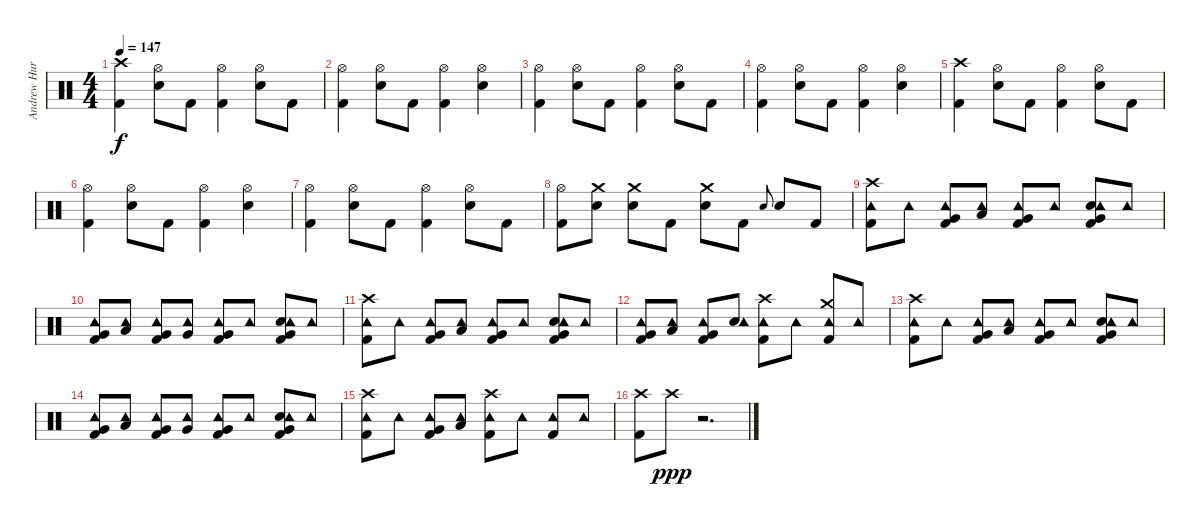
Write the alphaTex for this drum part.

\track ("Andrew Hurley (Drums)" "Andrew Hur") {instrument percussion}
\staff {score}
\articulation defaults
\ts (4 4)
\tempo 147
\clef neutral
\ks c
("Crash high (hit)" "Kick (hit) 2").4{dy f} ("Hi-Hat (open)" "Snare (hit) 2").8 "Kick (hit) 2".8 ("Hi-Hat (open)" "Kick (hit) 2").4 ("Hi-Hat (open)" "Snare (hit) 2").8 "Kick (hit) 2".8 |
("Hi-Hat (open)" "Kick (hit) 2").4 ("Hi-Hat (open)" "Snare (hit) 2").8 "Kick (hit) 2".8 ("Hi-Hat (open)" "Kick (hit) 2").4 ("Hi-Hat (open)" "Snare (hit) 2").4 |
("Hi-Hat (open)" "Kick (hit) 2").4 ("Hi-Hat (open)" "Snare (hit) 2").8 "Kick (hit) 2".8 ("Hi-Hat (open)" "Kick (hit) 2").4 ("Hi-Hat (open)" "Snare (hit) 2").8 "Kick (hit) 2".8 |
("Hi-Hat (open)" "Kick (hit) 2").4 ("Hi-Hat (open)" "Snare (hit) 2").8 "Kick (hit) 2".8 ("Hi-Hat (open)" "Kick (hit) 2").4 ("Hi-Hat (open)" "Snare (hit) 2").4 |
("Crash high (hit)" "Kick (hit) 2").4 ("Hi-Hat (open)" "Snare (hit) 2").8 "Kick (hit) 2".8 ("Hi-Hat (open)" "Kick (hit) 2").4 ("Hi-Hat (open)" "Snare (hit) 2").8 "Kick (hit) 2".8 |
("Hi-Hat (open)" "Kick (hit) 2").4 ("Hi-Hat (open)" "Snare (hit) 2").8 "Kick (hit) 2".8 ("Hi-Hat (open)" "Kick (hit) 2").4 ("Hi-Hat (open)" "Snare (hit) 2").4 |
("Hi-Hat (open)" "Kick (hit) 2").4 ("Hi-Hat (open)" "Snare (hit) 2").8 "Kick (hit) 2".8 ("Hi-Hat (open)" "Kick (hit) 2").4 ("Hi-Hat (open)" "Snare (hit) 2").8 "Kick (hit) 2".8 |
("Hi-Hat (open)" "Kick (hit) 2").8 ("Crash medium (hit)" "Snare (hit) 2").8 ("Crash medium (hit)" "Snare (hit) 2").8 "Kick (hit) 2".8 ("Crash medium (hit)" "Snare (hit) 2").8 "Kick (hit) 2".8 "Snare (hit) 2".8{gr onbeat} "Snare (hit) 2".8 "Kick (hit) 2".8 |
("Crash high (hit)" "Kick (hit) 2" "Tambourine (hit)").8 "Tambourine (hit)".8 ("Very Low Tom (hit)" "Kick (hit) 2" "Tambourine (hit)").8 ("Low Tom (hit)" "Tambourine (hit)").8 ("Very Low Tom (hit)" "Kick (hit) 2" "Tambourine (hit)").8 "Tambourine (hit)".8 ("Very Low Tom (hit)" "Snare (hit) 2" "Kick (hit) 2" "Tambourine (hit)").8 "Tambourine (hit)".8 |
("Very Low Tom (hit)" "Kick (hit) 2" "Tambourine (hit)").8 ("Low Tom (hit)" "Tambourine (hit)").8 ("Very Low Tom (hit)" "Kick (hit) 2" "Tambourine (hit)").8 ("Very Low Tom (hit)" "Tambourine (hit)").8 ("Very Low Tom (hit)" "Kick (hit) 2" "Tambourine (hit)").8 "Tambourine (hit)".8 ("Very Low Tom (hit)" "Snare (hit) 2" "Kick (hit) 2" "Tambourine (hit)").8 "Tambourine (hit)".8 |
("Crash high (hit)" "Kick (hit) 2" "Tambourine (hit)").8 "Tambourine (hit)".8 ("Very Low Tom (hit)" "Kick (hit) 2" "Tambourine (hit)").8 ("Low Tom (hit)" "Tambourine (hit)").8 ("Very Low Tom (hit)" "Kick (hit) 2" "Tambourine (hit)").8 "Tambourine (hit)".8 ("Very Low Tom (hit)" "Snare (hit) 2" "Kick (hit) 2" "Tambourine (hit)").8 "Tambourine (hit)".8 |
("Very Low Tom (hit)" "Kick (hit) 2" "Tambourine (hit)").8 ("Low Tom (hit)" "Tambourine (hit)").8 ("Very Low Tom (hit)" "Kick (hit) 2" "Tambourine (hit)").8 ("Snare (hit) 2" "Tambourine (hit)").8 ("Crash high (hit)" "Kick (hit) 2" "Tambourine (hit)").8 "Tambourine (hit)".8 ("Crash medium (hit)" "Kick (hit) 2" "Tambourine (hit)").8 "Tambourine (hit)".8 |
("Crash high (hit)" "Kick (hit) 2" "Tambourine (hit)").8 "Tambourine (hit)".8 ("Very Low Tom (hit)" "Kick (hit) 2" "Tambourine (hit)").8 ("Low Tom (hit)" "Tambourine (hit)").8 ("Very Low Tom (hit)" "Kick (hit) 2" "Tambourine (hit)").8 "Tambourine (hit)".8 ("Very Low Tom (hit)" "Snare (hit) 2" "Kick (hit) 2" "Tambourine (hit)").8 "Tambourine (hit)".8 |
("Very Low Tom (hit)" "Kick (hit) 2" "Tambourine (hit)").8 ("Low Tom (hit)" "Tambourine (hit)").8 ("Very Low Tom (hit)" "Kick (hit) 2" "Tambourine (hit)").8 ("Very Low Tom (hit)" "Tambourine (hit)").8 ("Very Low Tom (hit)" "Kick (hit) 2" "Tambourine (hit)").8 "Tambourine (hit)".8 ("Very Low Tom (hit)" "Snare (hit) 2" "Kick (hit) 2" "Tambourine (hit)").8 "Tambourine (hit)".8 |
("Crash high (hit)" "Kick (hit) 2" "Tambourine (hit)").8 "Tambourine (hit)".8 ("Very Low Tom (hit)" "Kick (hit) 2" "Tambourine (hit)").8 ("Low Tom (hit)" "Tambourine (hit)").8 ("Crash high (hit)" "Kick (hit) 2" "Tambourine (hit)").8 "Tambourine (hit)".8 ("Kick (hit) 2" "Tambourine (hit)").8 "Tambourine (hit)".8 |
("Crash high (hit)" "Kick (hit) 2").8 "Crash high (hit)".8{dy ppp} r.2{d}
